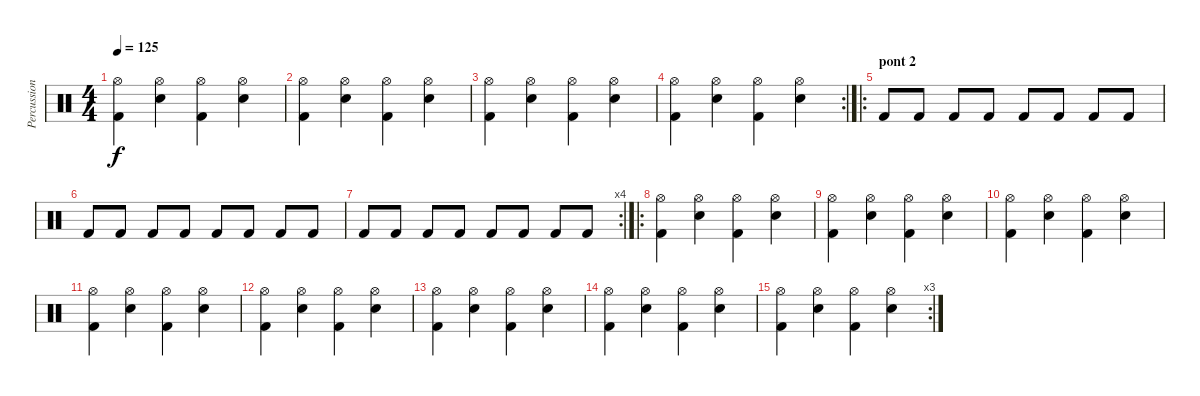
\track ("Percussions" "Percussion") {instrument percussion}
\staff {score}
\articulation defaults
\ts (4 4)
\tempo 125
\clef neutral
\ks c
("Hi-Hat (open)" "Kick (hit) 2").4{dy f} ("Hi-Hat (open)" "Electric Snare (hit)").4 ("Hi-Hat (open)" "Kick (hit) 2").4 ("Hi-Hat (open)" "Electric Snare (hit)").4 |
("Hi-Hat (open)" "Kick (hit) 2").4 ("Hi-Hat (open)" "Electric Snare (hit)").4 ("Hi-Hat (open)" "Kick (hit) 2").4 ("Hi-Hat (open)" "Electric Snare (hit)").4 |
("Hi-Hat (open)" "Kick (hit) 2").4 ("Hi-Hat (open)" "Electric Snare (hit)").4 ("Hi-Hat (open)" "Kick (hit) 2").4 ("Hi-Hat (open)" "Electric Snare (hit)").4 |
\rc 2
("Hi-Hat (open)" "Kick (hit) 2").4 ("Hi-Hat (open)" "Electric Snare (hit)").4 ("Hi-Hat (open)" "Kick (hit) 2").4 ("Hi-Hat (open)" "Electric Snare (hit)").4 |
\ro
\section ("" "pont 2")
"Kick (hit) 2".8 "Kick (hit) 2".8 "Kick (hit) 2".8 "Kick (hit) 2".8 "Kick (hit) 2".8 "Kick (hit) 2".8 "Kick (hit) 2".8 "Kick (hit) 2".8 |
"Kick (hit) 2".8 "Kick (hit) 2".8 "Kick (hit) 2".8 "Kick (hit) 2".8 "Kick (hit) 2".8 "Kick (hit) 2".8 "Kick (hit) 2".8 "Kick (hit) 2".8 |
\rc 4 "Kick (hit) 2".8 "Kick (hit) 2".8 "Kick (hit) 2".8 "Kick (hit) 2".8 "Kick (hit) 2".8 "Kick (hit) 2".8 "Kick (hit) 2".8 "Kick (hit) 2".8
|
\ro
("Hi-Hat (open)" "Kick (hit) 2").4 ("Hi-Hat (open)" "Electric Snare (hit)").4 ("Hi-Hat (open)" "Kick (hit) 2").4 ("Hi-Hat (open)" "Electric Snare (hit)").4 |
("Hi-Hat (open)" "Kick (hit) 2").4 ("Hi-Hat (open)" "Electric Snare (hit)").4 ("Hi-Hat (open)" "Kick (hit) 2").4 ("Hi-Hat (open)" "Electric Snare (hit)").4 |
("Hi-Hat (open)" "Kick (hit) 2").4 ("Hi-Hat (open)" "Electric Snare (hit)").4 ("Hi-Hat (open)" "Kick (hit) 2").4 ("Hi-Hat (open)" "Electric Snare (hit)").4 |
("Hi-Hat (open)" "Kick (hit) 2").4 ("Hi-Hat (open)" "Electric Snare (hit)").4 ("Hi-Hat (open)" "Kick (hit) 2").4 ("Hi-Hat (open)" "Electric Snare (hit)").4 |
("Hi-Hat (open)" "Kick (hit) 2").4 ("Hi-Hat (open)" "Electric Snare (hit)").4 ("Hi-Hat (open)" "Kick (hit) 2").4 ("Hi-Hat (open)" "Electric Snare (hit)").4 |
("Hi-Hat (open)" "Kick (hit) 2").4 ("Hi-Hat (open)" "Electric Snare (hit)").4 ("Hi-Hat (open)" "Kick (hit) 2").4 ("Hi-Hat (open)" "Electric Snare (hit)").4 |
("Hi-Hat (open)" "Kick (hit) 2").4 ("Hi-Hat (open)" "Electric Snare (hit)").4 ("Hi-Hat (open)" "Kick (hit) 2").4 ("Hi-Hat (open)" "Electric Snare (hit)").4 |
\rc 3
("Hi-Hat (open)" "Kick (hit) 2").4 ("Hi-Hat (open)" "Electric Snare (hit)").4 ("Hi-Hat (open)" "Kick (hit) 2").4 ("Hi-Hat (open)" "Electric Snare (hit)").4
